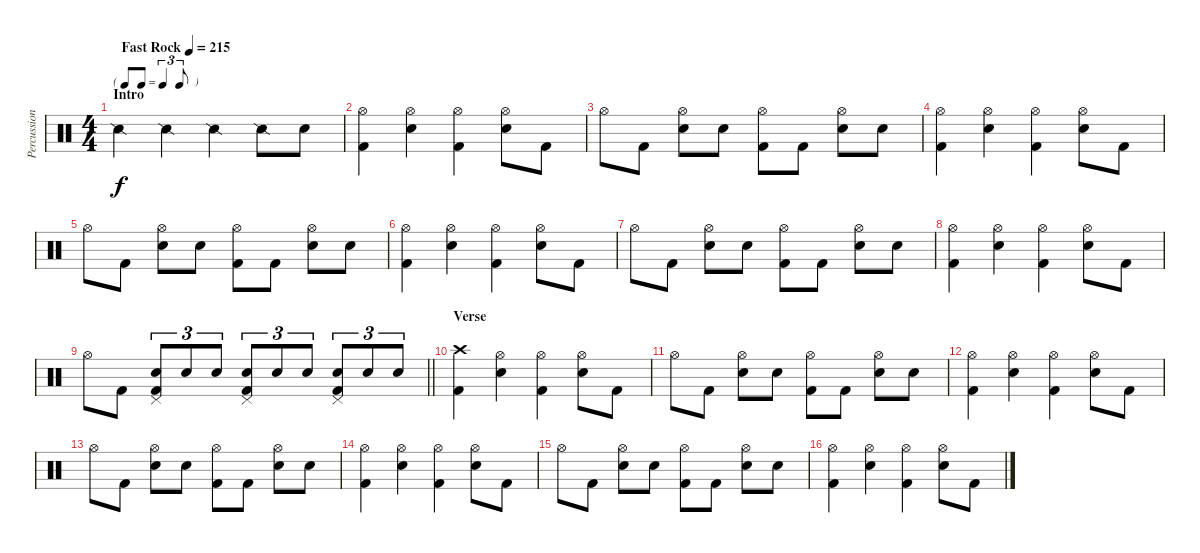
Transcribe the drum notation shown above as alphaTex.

\track ("Percussion" "Percussion") {instrument percussion}
\staff {score}
\articulation defaults
\ts (4 4)
\tf triplet8th
\section ("" "Intro")
\tempo (215 "Fast Rock")
\clef neutral
\ks c "Snare (side stick) 2".4{dy f} "Snare (side stick) 2".4 "Snare (side stick) 2".4 "Snare (side stick) 2".8 "Snare (hit) 2".8
|
("Hi-Hat (open)" "Kick (hit) 2").4 ("Hi-Hat (open)" "Snare (hit) 2").4 ("Hi-Hat (open)" "Kick (hit) 2").4 ("Hi-Hat (open)" "Snare (hit) 2").8 "Kick (hit) 2".8 |
"Hi-Hat (open)".8 "Kick (hit) 2".8 ("Hi-Hat (open)" "Snare (hit) 2").8 "Snare (hit) 2".8 ("Hi-Hat (open)" "Kick (hit) 2").8 "Kick (hit) 2".8 ("Hi-Hat (open)" "Snare (hit) 2").8 "Snare (hit) 2".8 |
("Hi-Hat (open)" "Kick (hit) 2").4 ("Hi-Hat (open)" "Snare (hit) 2").4 ("Hi-Hat (open)" "Kick (hit) 2").4 ("Hi-Hat (open)" "Snare (hit) 2").8 "Kick (hit) 2".8 |
"Hi-Hat (open)".8 "Kick (hit) 2".8 ("Hi-Hat (open)" "Snare (hit) 2").8 "Snare (hit) 2".8 ("Hi-Hat (open)" "Kick (hit) 2").8 "Kick (hit) 2".8 ("Hi-Hat (open)" "Snare (hit) 2").8 "Snare (hit) 2".8 |
("Hi-Hat (open)" "Kick (hit) 2").4 ("Hi-Hat (open)" "Snare (hit) 2").4 ("Hi-Hat (open)" "Kick (hit) 2").4 ("Hi-Hat (open)" "Snare (hit) 2").8 "Kick (hit) 2".8 |
"Hi-Hat (open)".8 "Kick (hit) 2".8 ("Hi-Hat (open)" "Snare (hit) 2").8 "Snare (hit) 2".8 ("Hi-Hat (open)" "Kick (hit) 2").8 "Kick (hit) 2".8 ("Hi-Hat (open)" "Snare (hit) 2").8 "Snare (hit) 2".8 |
("Hi-Hat (open)" "Kick (hit) 2").4 ("Hi-Hat (open)" "Snare (hit) 2").4 ("Hi-Hat (open)" "Kick (hit) 2").4 ("Hi-Hat (open)" "Snare (hit) 2").8 "Kick (hit) 2".8 |
\barLineRight lightlight "Hi-Hat (open)".8 "Kick (hit) 2".8
("Snare (hit) 2" "Pedal Hi-Hat (hit)" "Kick (hit) 2").8{tu (3 2)} "Snare (hit) 2".8{tu (3 2)} "Snare (hit) 2".8{tu (3 2)} ("Snare (hit) 2" "Pedal Hi-Hat (hit)" "Kick (hit) 2").8{tu (3 2)} "Snare (hit) 2".8{tu (3 2)} "Snare (hit) 2".8{tu (3 2)} ("Snare (hit) 2" "Pedal Hi-Hat (hit)" "Kick (hit) 2").8{tu (3 2)} "Snare (hit) 2".8{tu (3 2)} "Snare (hit) 2".8{tu (3 2)} |
\section ("" "Verse")
("Crash high (hit)" "Kick (hit) 2").4 ("Hi-Hat (open)" "Snare (hit) 2").4 ("Hi-Hat (open)" "Kick (hit) 2").4 ("Hi-Hat (open)" "Snare (hit) 2").8 "Kick (hit) 2".8 |
"Hi-Hat (open)".8 "Kick (hit) 2".8 ("Hi-Hat (open)" "Snare (hit) 2").8 "Snare (hit) 2".8 ("Hi-Hat (open)" "Kick (hit) 2").8 "Kick (hit) 2".8 ("Hi-Hat (open)" "Snare (hit) 2").8 "Snare (hit) 2".8 |
("Hi-Hat (open)" "Kick (hit) 2").4 ("Hi-Hat (open)" "Snare (hit) 2").4 ("Hi-Hat (open)" "Kick (hit) 2").4 ("Hi-Hat (open)" "Snare (hit) 2").8 "Kick (hit) 2".8 |
"Hi-Hat (open)".8 "Kick (hit) 2".8 ("Hi-Hat (open)" "Snare (hit) 2").8 "Snare (hit) 2".8 ("Hi-Hat (open)" "Kick (hit) 2").8 "Kick (hit) 2".8 ("Hi-Hat (open)" "Snare (hit) 2").8 "Snare (hit) 2".8 |
("Hi-Hat (open)" "Kick (hit) 2").4 ("Hi-Hat (open)" "Snare (hit) 2").4 ("Hi-Hat (open)" "Kick (hit) 2").4 ("Hi-Hat (open)" "Snare (hit) 2").8 "Kick (hit) 2".8 |
"Hi-Hat (open)".8 "Kick (hit) 2".8 ("Hi-Hat (open)" "Snare (hit) 2").8 "Snare (hit) 2".8 ("Hi-Hat (open)" "Kick (hit) 2").8 "Kick (hit) 2".8 ("Hi-Hat (open)" "Snare (hit) 2").8 "Snare (hit) 2".8 |
("Hi-Hat (open)" "Kick (hit) 2").4 ("Hi-Hat (open)" "Snare (hit) 2").4 ("Hi-Hat (open)" "Kick (hit) 2").4 ("Hi-Hat (open)" "Snare (hit) 2").8 "Kick (hit) 2".8
